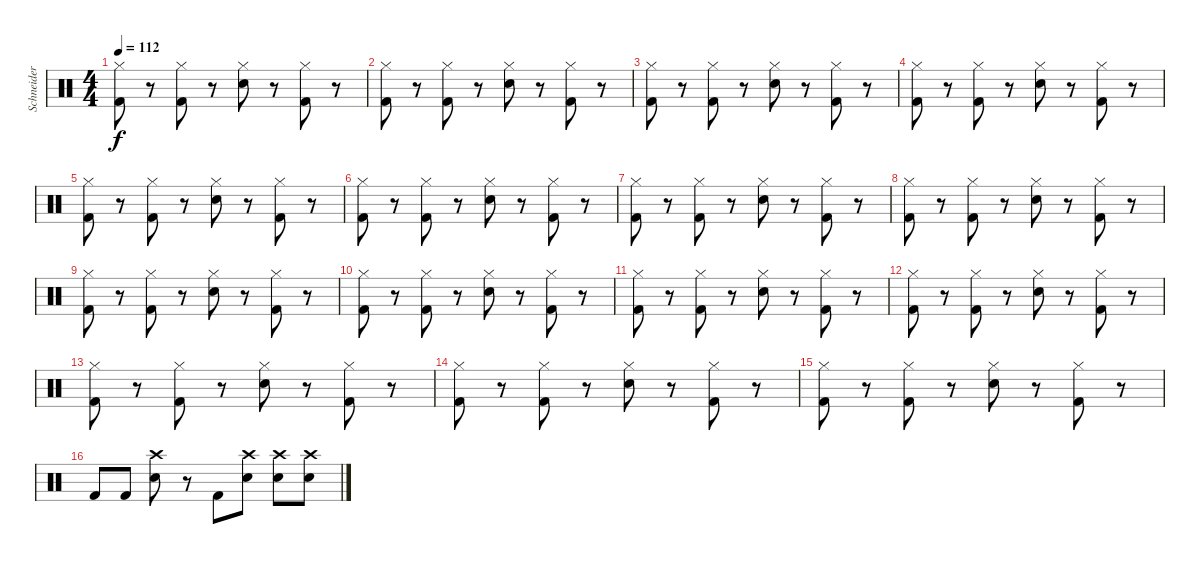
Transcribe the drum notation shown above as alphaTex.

\track ("Schneider - Drums" "Schneider ") {instrument percussion}
\staff {score}
\articulation defaults
\ts (4 4)
\tempo 112
\clef neutral
\ks c
("Hi-Hat (closed)" "Kick (hit) 2").8{dy f} r.8 ("Hi-Hat (closed)" "Kick (hit) 2").8 r.8 ("Hi-Hat (closed)" "Snare (hit) 2").8 r.8 ("Hi-Hat (closed)" "Kick (hit) 2").8 r.8 |
("Hi-Hat (closed)" "Kick (hit) 2").8 r.8 ("Hi-Hat (closed)" "Kick (hit) 2").8 r.8 ("Hi-Hat (closed)" "Snare (hit) 2").8 r.8 ("Hi-Hat (closed)" "Kick (hit) 2").8 r.8 |
("Hi-Hat (closed)" "Kick (hit) 2").8 r.8 ("Hi-Hat (closed)" "Kick (hit) 2").8 r.8 ("Hi-Hat (closed)" "Snare (hit) 2").8 r.8 ("Hi-Hat (closed)" "Kick (hit) 2").8 r.8 |
("Hi-Hat (closed)" "Kick (hit) 2").8 r.8 ("Hi-Hat (closed)" "Kick (hit) 2").8 r.8 ("Hi-Hat (closed)" "Snare (hit) 2").8 r.8 ("Hi-Hat (closed)" "Kick (hit) 2").8 r.8 |
("Hi-Hat (closed)" "Kick (hit) 2").8 r.8 ("Hi-Hat (closed)" "Kick (hit) 2").8 r.8 ("Hi-Hat (closed)" "Snare (hit) 2").8 r.8 ("Hi-Hat (closed)" "Kick (hit) 2").8 r.8 |
("Hi-Hat (closed)" "Kick (hit) 2").8 r.8 ("Hi-Hat (closed)" "Kick (hit) 2").8 r.8 ("Hi-Hat (closed)" "Snare (hit) 2").8 r.8 ("Hi-Hat (closed)" "Kick (hit) 2").8 r.8 |
("Hi-Hat (closed)" "Kick (hit) 2").8 r.8 ("Hi-Hat (closed)" "Kick (hit) 2").8 r.8 ("Hi-Hat (closed)" "Snare (hit) 2").8 r.8 ("Hi-Hat (closed)" "Kick (hit) 2").8 r.8 |
("Hi-Hat (closed)" "Kick (hit) 2").8 r.8 ("Hi-Hat (closed)" "Kick (hit) 2").8 r.8 ("Hi-Hat (closed)" "Snare (hit) 2").8 r.8 ("Hi-Hat (closed)" "Kick (hit) 2").8 r.8 |
("Hi-Hat (closed)" "Kick (hit) 2").8 r.8 ("Hi-Hat (closed)" "Kick (hit) 2").8 r.8 ("Hi-Hat (closed)" "Snare (hit) 2").8 r.8 ("Hi-Hat (closed)" "Kick (hit) 2").8 r.8 |
("Hi-Hat (closed)" "Kick (hit) 2").8 r.8 ("Hi-Hat (closed)" "Kick (hit) 2").8 r.8 ("Hi-Hat (closed)" "Snare (hit) 2").8 r.8 ("Hi-Hat (closed)" "Kick (hit) 2").8 r.8 |
("Hi-Hat (closed)" "Kick (hit) 2").8 r.8 ("Hi-Hat (closed)" "Kick (hit) 2").8 r.8 ("Hi-Hat (closed)" "Snare (hit) 2").8 r.8 ("Hi-Hat (closed)" "Kick (hit) 2").8 r.8 |
("Hi-Hat (closed)" "Kick (hit) 2").8 r.8 ("Hi-Hat (closed)" "Kick (hit) 2").8 r.8 ("Hi-Hat (closed)" "Snare (hit) 2").8 r.8 ("Hi-Hat (closed)" "Kick (hit) 2").8 r.8 |
("Hi-Hat (closed)" "Kick (hit) 2").8 r.8 ("Hi-Hat (closed)" "Kick (hit) 2").8 r.8 ("Hi-Hat (closed)" "Snare (hit) 2").8 r.8 ("Hi-Hat (closed)" "Kick (hit) 2").8 r.8 |
("Hi-Hat (closed)" "Kick (hit) 2").8 r.8 ("Hi-Hat (closed)" "Kick (hit) 2").8 r.8 ("Hi-Hat (closed)" "Snare (hit) 2").8 r.8 ("Hi-Hat (closed)" "Kick (hit) 2").8 r.8 |
("Hi-Hat (closed)" "Kick (hit) 2").8 r.8 ("Hi-Hat (closed)" "Kick (hit) 2").8 r.8 ("Hi-Hat (closed)" "Snare (hit) 2").8 r.8 ("Hi-Hat (closed)" "Kick (hit) 2").8 r.8 |
"Kick (hit) 2".8 "Kick (hit) 2".8 ("Crash high (hit)" "Snare (hit) 2").8 r.8 "Kick (hit) 2".8 ("Crash high (hit)" "Snare (hit) 2").8 ("Crash high (hit)" "Snare (hit) 2").8 ("Crash high (hit)" "Snare (hit) 2").8
